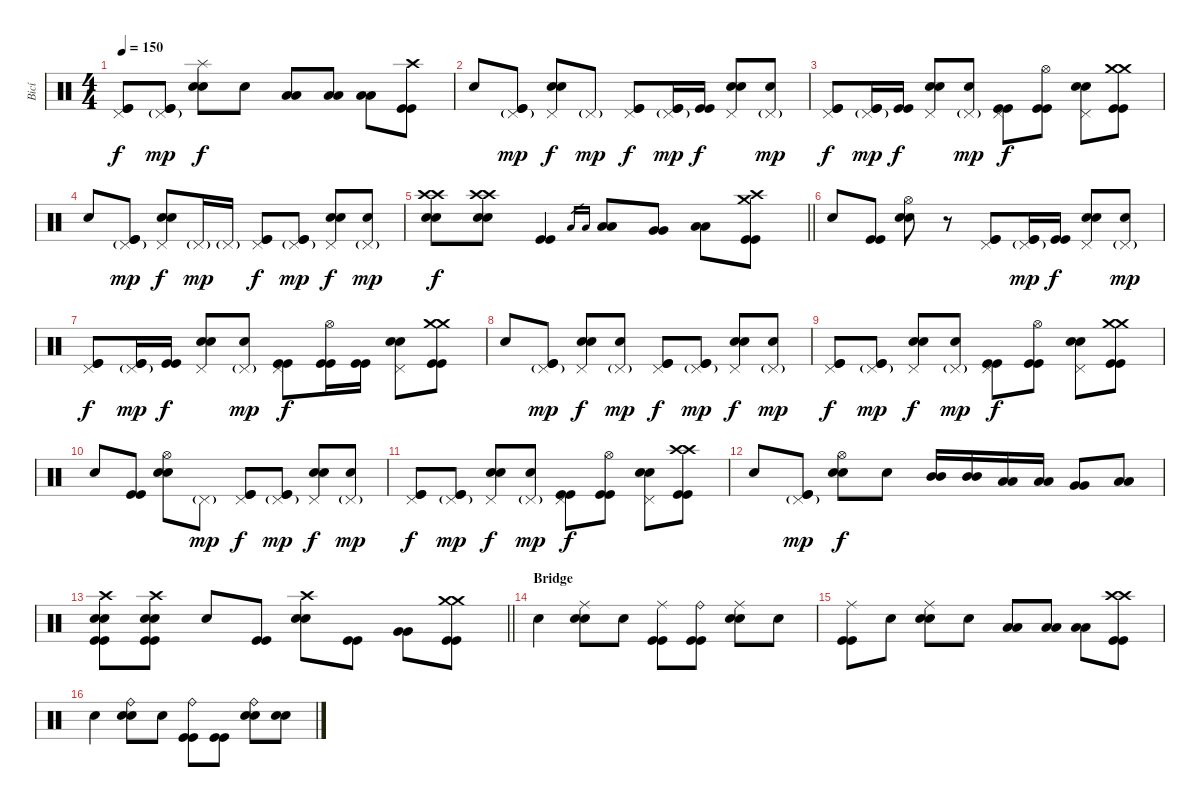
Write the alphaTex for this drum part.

\track ("Bicí" "Bicí") {instrument percussion}
\staff {score}
\articulation defaults
\ts (4 4)
\tempo 150
\clef neutral
\ks c
("Pedal Hi-Hat (hit)" "Kick (hit)" "Kick (hit)").8{dy f} ("Pedal Hi-Hat (hit)"{g} "Kick (hit)" "Kick (hit)").8{dy mp} ("Splash (hit)" "Electric Snare (hit)" "Electric Snare (hit)").8{dy f} "Snare (hit)".8 ("Low Tom (hit)" "Low Tom (hit)").8 ("Low Tom (hit)" "Low Tom (hit)").8 ("Low Tom (hit)" "Low Tom (hit)").8 ("Crash high (hit)" "Kick (hit)" "Kick (hit)").8 |
"Snare (hit)".8 ("Pedal Hi-Hat (hit)"{g} "Kick (hit)" "Kick (hit)").8{dy mp} ("Pedal Hi-Hat (hit)" "Electric Snare (hit)" "Electric Snare (hit)").8{dy f} "Pedal Hi-Hat (hit)"{g}.8{dy mp} ("Pedal Hi-Hat (hit)" "Kick (hit)" "Kick (hit)").8{dy f} ("Pedal Hi-Hat (hit)"{g} "Kick (hit)" "Kick (hit)").16{dy mp} ("Kick (hit)" "Kick (hit)").16{dy f} ("Pedal Hi-Hat (hit)" "Electric Snare (hit)" "Electric Snare (hit)").8 ("Pedal Hi-Hat (hit)"{g} "Snare (hit)").8{dy mp} |
("Pedal Hi-Hat (hit)" "Kick (hit)" "Kick (hit)").8{dy f} ("Pedal Hi-Hat (hit)"{g} "Kick (hit)" "Kick (hit)").16{dy mp} ("Kick (hit)" "Kick (hit)").16{dy f} ("Pedal Hi-Hat (hit)" "Electric Snare (hit)" "Electric Snare (hit)").8 ("Pedal Hi-Hat (hit)"{g} "Snare (hit)").8{dy mp} ("Pedal Hi-Hat (hit)" "Kick (hit)" "Kick (hit)").8{dy f} ("Hi-Hat (open)" "Kick (hit)" "Kick (hit)").8 ("Pedal Hi-Hat (hit)" "Electric Snare (hit)" "Electric Snare (hit)").8 ("Crash medium (hit)" "Crash medium (hit)" "Kick (hit)" "Kick (hit)").8 |
"Snare (hit)".8 ("Pedal Hi-Hat (hit)"{g} "Kick (hit)" "Kick (hit)").8{dy mp} ("Pedal Hi-Hat (hit)" "Electric Snare (hit)" "Electric Snare (hit)").8{dy f} "Pedal Hi-Hat (hit)"{g}.16{dy mp} "Pedal Hi-Hat (hit)"{g}.16 ("Pedal Hi-Hat (hit)" "Kick (hit)" "Kick (hit)").8{dy f} ("Pedal Hi-Hat (hit)"{g} "Kick (hit)" "Kick (hit)").8{dy mp} ("Pedal Hi-Hat (hit)" "Electric Snare (hit)" "Electric Snare (hit)").8{dy f} ("Pedal Hi-Hat (hit)"{g} "Snare (hit)").8{dy mp} |
\barLineRight lightlight
("Crash high (hit)" "Crash high (hit)" "Electric Snare (hit)" "Electric Snare (hit)").8{dy f} ("Crash high (hit)" "Crash high (hit)" "Electric Snare (hit)" "Electric Snare (hit)").8 ("Kick (hit)" "Kick (hit)").4 "Low Tom (hit)".16{gr} "Low Tom (hit)".16{gr} ("Low Tom (hit)" "Low Tom (hit)").8 ("Very Low Tom (hit)" "Very Low Tom (hit)").8 ("Low Floor Tom (hit)" "Low Floor Tom (hit)").8 ("Crash high (hit)" "Crash medium (hit)" "Kick (hit)" "Kick (hit)").8 |
"Snare (hit)".8 ("Kick (hit)" "Kick (hit)").8 ("Hi-Hat (open)" "Electric Snare (hit)" "Electric Snare (hit)").8 r.8 ("Pedal Hi-Hat (hit)" "Kick (hit)" "Kick (hit)").8 ("Pedal Hi-Hat (hit)"{g} "Kick (hit)" "Kick (hit)").16{dy mp} ("Kick (hit)" "Kick (hit)").16{dy f} ("Pedal Hi-Hat (hit)" "Electric Snare (hit)" "Electric Snare (hit)").8 ("Pedal Hi-Hat (hit)"{g} "Snare (hit)").8{dy mp} |
("Pedal Hi-Hat (hit)" "Kick (hit)" "Kick (hit)").8{dy f} ("Pedal Hi-Hat (hit)"{g} "Kick (hit)" "Kick (hit)").16{dy mp} ("Kick (hit)" "Kick (hit)").16{dy f} ("Pedal Hi-Hat (hit)" "Electric Snare (hit)" "Electric Snare (hit)").8 ("Pedal Hi-Hat (hit)"{g} "Snare (hit)").8{dy mp} ("Pedal Hi-Hat (hit)" "Kick (hit)" "Kick (hit)").8{dy f} ("Hi-Hat (open)" "Kick (hit)" "Kick (hit)").16 ("Kick (hit)" "Kick (hit)").16 ("Pedal Hi-Hat (hit)" "Electric Snare (hit)" "Electric Snare (hit)").8 ("Crash medium (hit)" "Crash medium (hit)" "Kick (hit)" "Kick (hit)").8 |
"Snare (hit)".8 ("Pedal Hi-Hat (hit)"{g} "Kick (hit)" "Kick (hit)").8{dy mp} ("Pedal Hi-Hat (hit)" "Electric Snare (hit)" "Electric Snare (hit)").8{dy f} ("Pedal Hi-Hat (hit)"{g} "Snare (hit)").8{dy mp} ("Pedal Hi-Hat (hit)" "Kick (hit)" "Kick (hit)").8{dy f} ("Pedal Hi-Hat (hit)"{g} "Kick (hit)" "Kick (hit)").8{dy mp} ("Pedal Hi-Hat (hit)" "Electric Snare (hit)" "Electric Snare (hit)").8{dy f} ("Pedal Hi-Hat (hit)"{g} "Snare (hit)").8{dy mp} |
("Pedal Hi-Hat (hit)" "Kick (hit)" "Kick (hit)").8{dy f} ("Pedal Hi-Hat (hit)"{g} "Kick (hit)" "Kick (hit)").8{dy mp} ("Pedal Hi-Hat (hit)" "Electric Snare (hit)" "Electric Snare (hit)").8{dy f} ("Pedal Hi-Hat (hit)"{g} "Snare (hit)").8{dy mp} ("Pedal Hi-Hat (hit)" "Kick (hit)" "Kick (hit)").8{dy f} ("Hi-Hat (open)" "Kick (hit)" "Kick (hit)").8 ("Pedal Hi-Hat (hit)" "Electric Snare (hit)" "Electric Snare (hit)").8 ("Crash medium (hit)" "Crash medium (hit)" "Kick (hit)" "Kick (hit)").8 |
"Snare (hit)".8 ("Kick (hit)" "Kick (hit)").8 ("Hi-Hat (open)" "Electric Snare (hit)" "Electric Snare (hit)").8 "Pedal Hi-Hat (hit)"{g}.8{dy mp} ("Pedal Hi-Hat (hit)" "Kick (hit)" "Kick (hit)").8{dy f} ("Pedal Hi-Hat (hit)"{g} "Kick (hit)" "Kick (hit)").8{dy mp} ("Pedal Hi-Hat (hit)" "Electric Snare (hit)" "Electric Snare (hit)").8{dy f} ("Pedal Hi-Hat (hit)"{g} "Snare (hit)").8{dy mp} |
("Pedal Hi-Hat (hit)" "Kick (hit)" "Kick (hit)").8{dy f} ("Pedal Hi-Hat (hit)"{g} "Kick (hit)" "Kick (hit)").8{dy mp} ("Pedal Hi-Hat (hit)" "Electric Snare (hit)" "Electric Snare (hit)").8{dy f} ("Pedal Hi-Hat (hit)"{g} "Snare (hit)").8{dy mp} ("Pedal Hi-Hat (hit)" "Kick (hit)" "Kick (hit)").8{dy f} ("Hi-Hat (open)" "Kick (hit)" "Kick (hit)").8 ("Pedal Hi-Hat (hit)" "Electric Snare (hit)" "Electric Snare (hit)").8 ("Crash high (hit)" "Crash high (hit)" "Kick (hit)" "Kick (hit)").8 |
"Snare (hit)".8 ("Pedal Hi-Hat (hit)"{g} "Kick (hit)" "Kick (hit)").8{dy mp} ("Hi-Hat (open)" "Electric Snare (hit)" "Electric Snare (hit)").8{dy f} "Snare (hit)".8 ("Mid Tom (hit)" "Mid Tom (hit)").16 ("Mid Tom (hit)" "Mid Tom (hit)").16 ("Low Tom (hit)" "Low Tom (hit)").16 ("Low Tom (hit)" "Low Tom (hit)").16 ("Very Low Tom (hit)" "Very Low Tom (hit)").8 ("Low Floor Tom (hit)" "Low Floor Tom (hit)").8 |
\barLineRight lightlight
("Crash high (hit)" "Electric Snare (hit)" "Electric Snare (hit)" "Kick (hit)" "Kick (hit)").8 ("Crash high (hit)" "Electric Snare (hit)" "Electric Snare (hit)" "Kick (hit)" "Kick (hit)").8 "Snare (hit)".8 ("Kick (hit)" "Kick (hit)").8 ("Crash high (hit)" "Electric Snare (hit)" "Electric Snare (hit)").8 ("Kick (hit)" "Kick (hit)").8 ("Very Low Tom (hit)" "Very Low Tom (hit)").8 ("Crash medium (hit)" "Crash medium (hit)" "Kick (hit)" "Kick (hit)").8 |
\section ("" "Bridge")
"Snare (hit)".4 ("Ride (middle)" "Electric Snare (hit)" "Electric Snare (hit)").8 "Snare (hit)".8 ("Ride (middle)" "Kick (hit)" "Kick (hit)").8 ("Ride (bell)" "Kick (hit)" "Kick (hit)").8 ("Ride (middle)" "Electric Snare (hit)" "Electric Snare (hit)").8 "Snare (hit)".8 |
("Ride (middle)" "Kick (hit)" "Kick (hit)").8 "Snare (hit)".8 ("Ride (middle)" "Electric Snare (hit)" "Electric Snare (hit)").8 "Snare (hit)".8 ("Low Tom (hit)" "Low Tom (hit)").8 ("Low Tom (hit)" "Low Tom (hit)").8 ("Low Tom (hit)" "Low Tom (hit)").8 ("Crash high (hit)" "Crash high (hit)" "Kick (hit)" "Kick (hit)").8 |
"Snare (hit)".4 ("Ride (bell)" "Electric Snare (hit)" "Electric Snare (hit)").8 "Snare (hit)".8 ("Ride (bell)" "Kick (hit)" "Kick (hit)").8 ("Kick (hit)" "Kick (hit)").8 ("Ride (bell)" "Electric Snare (hit)" "Electric Snare (hit)").8 ("Snare (hit)" "Snare (hit)").8
